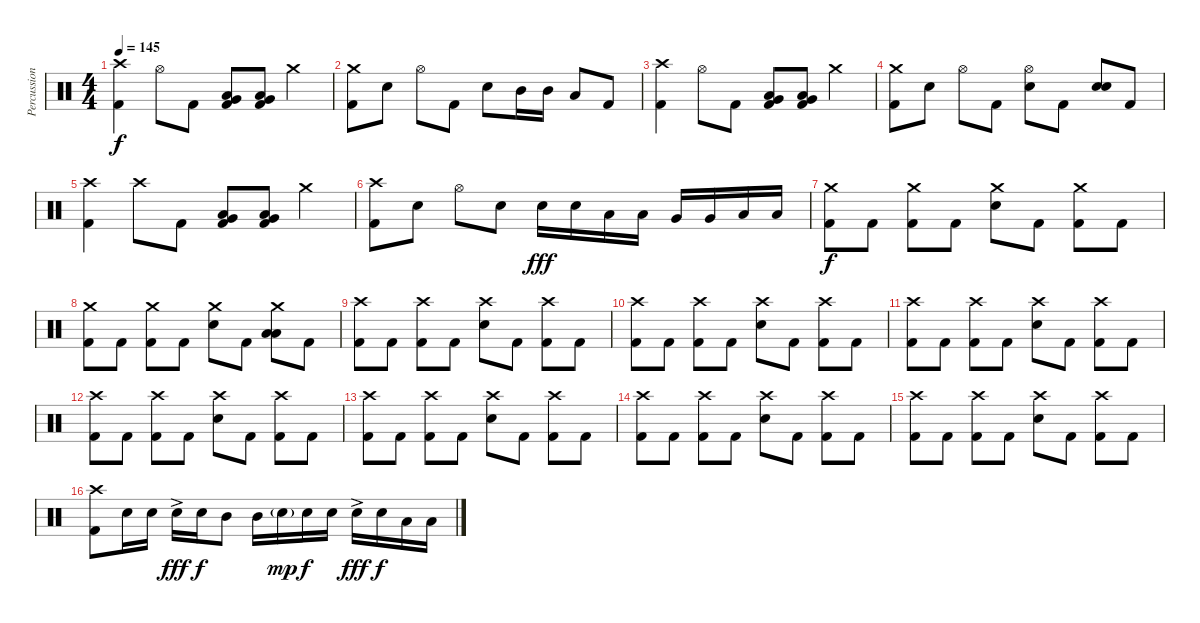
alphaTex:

\track ("Percussion" "Percussion") {instrument percussion}
\staff {score}
\articulation defaults
\ts (4 4)
\tempo 145
\clef neutral
\ks c
("Crash high (hit)" "Kick (hit) 2").4{dy f} "Hi-Hat (open)".8 "Kick (hit) 2".8 ("Very Low Tom (hit)" "Low Tom (hit)" "Kick (hit) 2").8 ("Very Low Tom (hit)" "Low Tom (hit)" "Kick (hit) 2").8 "Crash medium (hit)".4 |
("Crash medium (hit)" "Kick (hit) 2").8 "Electric Snare (hit)".8 "Hi-Hat (open)".8 "Kick (hit) 2".8 "Electric Snare (hit)".8 "Mid Tom (hit)".16 "Mid Tom (hit)".16 "Low Tom (hit)".8 "Kick (hit) 2".8 |
("Crash high (hit)" "Kick (hit) 2").4 "Hi-Hat (open)".8 "Kick (hit) 2".8 ("Very Low Tom (hit)" "Low Tom (hit)" "Kick (hit) 2").8 ("Very Low Tom (hit)" "Low Tom (hit)" "Kick (hit) 2").8 "Crash medium (hit)".4 |
("Crash medium (hit)" "Kick (hit) 2").8 "Electric Snare (hit)".8 "Hi-Hat (open)".8 "Kick (hit) 2".8 ("Hi-Hat (open)" "Electric Snare (hit)").8 "Kick (hit) 2".8 ("Electric Snare (hit)" "Electric Snare (hit)").8{bd 240} "Kick (hit) 2".8 |
("Crash high (hit)" "Kick (hit) 2").4 "Crash high (hit)".8 "Kick (hit) 2".8 ("Very Low Tom (hit)" "Low Tom (hit)" "Kick (hit) 2").8 ("Very Low Tom (hit)" "Low Tom (hit)" "Kick (hit) 2").8 "Crash medium (hit)".4 |
("Crash high (hit)" "Kick (hit) 2").8 "Electric Snare (hit)".8 "Hi-Hat (open)".8 "Electric Snare (hit)".8 "Electric Snare (hit)".16{dy fff} "Electric Snare (hit)".16 "Low Tom (hit)".16 "Low Tom (hit)".16 "Very Low Tom (hit)".16 "Very Low Tom (hit)".16 "Low Floor Tom (hit)".16 "Low Floor Tom (hit)".16 |
("Crash medium (hit)" "Kick (hit) 2").8{dy f} "Kick (hit) 2".8 ("Crash medium (hit)" "Kick (hit) 2").8 "Kick (hit) 2".8 ("Crash medium (hit)" "Electric Snare (hit)").8 "Kick (hit) 2".8 ("Crash medium (hit)" "Kick (hit) 2").8 "Kick (hit) 2".8 |
("Crash medium (hit)" "Kick (hit) 2").8 "Kick (hit) 2".8 ("Crash medium (hit)" "Kick (hit) 2").8 "Kick (hit) 2".8 ("Crash medium (hit)" "Electric Snare (hit)").8 "Kick (hit) 2".8 ("Crash medium (hit)" "Low Tom (hit)" "Low Tom (hit)").8 "Kick (hit) 2".8 |
("Crash high (hit)" "Kick (hit) 2").8 "Kick (hit) 2".8 ("Crash high (hit)" "Kick (hit) 2").8 "Kick (hit) 2".8 ("Crash high (hit)" "Electric Snare (hit)").8 "Kick (hit) 2".8 ("Crash high (hit)" "Kick (hit) 2").8 "Kick (hit) 2".8 |
("Crash high (hit)" "Kick (hit) 2").8 "Kick (hit) 2".8 ("Crash high (hit)" "Kick (hit) 2").8 "Kick (hit) 2".8 ("Crash high (hit)" "Electric Snare (hit)").8 "Kick (hit) 2".8 ("Crash high (hit)" "Kick (hit) 2").8 "Kick (hit) 2".8 |
("Crash high (hit)" "Kick (hit) 2").8 "Kick (hit) 2".8 ("Crash high (hit)" "Kick (hit) 2").8 "Kick (hit) 2".8 ("Crash high (hit)" "Electric Snare (hit)").8 "Kick (hit) 2".8 ("Crash high (hit)" "Kick (hit) 2").8 "Kick (hit) 2".8 |
("Crash high (hit)" "Kick (hit) 2").8 "Kick (hit) 2".8 ("Crash high (hit)" "Kick (hit) 2").8 "Kick (hit) 2".8 ("Crash high (hit)" "Electric Snare (hit)").8 "Kick (hit) 2".8 ("Crash high (hit)" "Kick (hit) 2").8 "Kick (hit) 2".8 |
("Crash high (hit)" "Kick (hit) 2").8 "Kick (hit) 2".8 ("Crash high (hit)" "Kick (hit) 2").8 "Kick (hit) 2".8 ("Crash high (hit)" "Electric Snare (hit)").8 "Kick (hit) 2".8 ("Crash high (hit)" "Kick (hit) 2").8 "Kick (hit) 2".8 |
("Crash high (hit)" "Kick (hit) 2").8 "Kick (hit) 2".8 ("Crash high (hit)" "Kick (hit) 2").8 "Kick (hit) 2".8 ("Crash high (hit)" "Electric Snare (hit)").8 "Kick (hit) 2".8 ("Crash high (hit)" "Kick (hit) 2").8 "Kick (hit) 2".8 |
("Crash high (hit)" "Kick (hit) 2").8 "Kick (hit) 2".8 ("Crash high (hit)" "Kick (hit) 2").8 "Kick (hit) 2".8 ("Crash high (hit)" "Electric Snare (hit)").8 "Kick (hit) 2".8 ("Crash high (hit)" "Kick (hit) 2").8 "Kick (hit) 2".8 |
("Crash high (hit)" "Kick (hit) 2").8 "Electric Snare (hit)".16 "Electric Snare (hit)".16 "Electric Snare (hit)"{ac}.16{dy fff} "Electric Snare (hit)".16{dy f} "Mid Tom (hit)".8 "Mid Tom (hit)".16 "Electric Snare (hit)"{g}.16{dy mp} "Electric Snare (hit)".16{dy f} "Electric Snare (hit)".16 "Electric Snare (hit)"{ac}.16{dy fff} "Electric Snare (hit)".16{dy f} "Low Tom (hit)".16 "Low Tom (hit)".16
